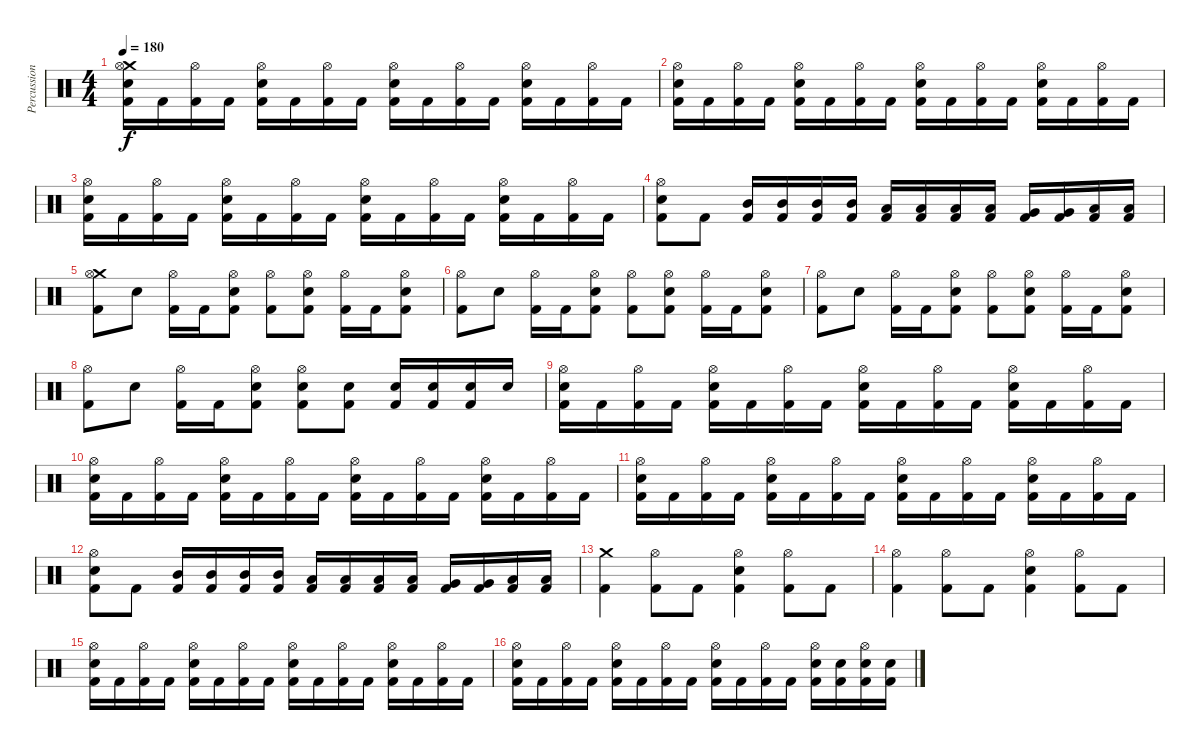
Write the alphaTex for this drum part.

\track ("Percussion" "Percussion") {instrument percussion}
\staff {score}
\articulation defaults
\ts (4 4)
\tempo 180
\clef neutral
\ks c
("Crash medium (hit)" "Hi-Hat (open)" "Electric Snare (hit)" "Kick (hit) 2").16{dy f} "Kick (hit) 2".16 ("Hi-Hat (open)" "Kick (hit) 2").16 "Kick (hit) 2".16 ("Hi-Hat (open)" "Electric Snare (hit)" "Kick (hit) 2").16 "Kick (hit) 2".16 ("Hi-Hat (open)" "Kick (hit) 2").16 "Kick (hit) 2".16 ("Hi-Hat (open)" "Electric Snare (hit)" "Kick (hit) 2").16 "Kick (hit) 2".16 ("Hi-Hat (open)" "Kick (hit) 2").16 "Kick (hit) 2".16 ("Hi-Hat (open)" "Electric Snare (hit)" "Kick (hit) 2").16 "Kick (hit) 2".16 ("Hi-Hat (open)" "Kick (hit) 2").16 "Kick (hit) 2".16 |
("Hi-Hat (open)" "Electric Snare (hit)" "Kick (hit) 2").16 "Kick (hit) 2".16 ("Hi-Hat (open)" "Kick (hit) 2").16 "Kick (hit) 2".16 ("Hi-Hat (open)" "Electric Snare (hit)" "Kick (hit) 2").16 "Kick (hit) 2".16 ("Hi-Hat (open)" "Kick (hit) 2").16 "Kick (hit) 2".16 ("Hi-Hat (open)" "Electric Snare (hit)" "Kick (hit) 2").16 "Kick (hit) 2".16 ("Hi-Hat (open)" "Kick (hit) 2").16 "Kick (hit) 2".16 ("Hi-Hat (open)" "Electric Snare (hit)" "Kick (hit) 2").16 "Kick (hit) 2".16 ("Hi-Hat (open)" "Kick (hit) 2").16 "Kick (hit) 2".16 |
("Hi-Hat (open)" "Electric Snare (hit)" "Kick (hit) 2").16 "Kick (hit) 2".16 ("Hi-Hat (open)" "Kick (hit) 2").16 "Kick (hit) 2".16 ("Hi-Hat (open)" "Electric Snare (hit)" "Kick (hit) 2").16 "Kick (hit) 2".16 ("Hi-Hat (open)" "Kick (hit) 2").16 "Kick (hit) 2".16 ("Hi-Hat (open)" "Electric Snare (hit)" "Kick (hit) 2").16 "Kick (hit) 2".16 ("Hi-Hat (open)" "Kick (hit) 2").16 "Kick (hit) 2".16 ("Hi-Hat (open)" "Electric Snare (hit)" "Kick (hit) 2").16 "Kick (hit) 2".16 ("Hi-Hat (open)" "Kick (hit) 2").16 "Kick (hit) 2".16 |
("Hi-Hat (open)" "Electric Snare (hit)" "Kick (hit) 2").8 "Kick (hit) 2".8 ("Mid Tom (hit)" "Kick (hit) 2").16 ("Mid Tom (hit)" "Kick (hit) 2").16 ("Mid Tom (hit)" "Kick (hit) 2").16 ("Mid Tom (hit)" "Kick (hit) 2").16 ("Low Tom (hit)" "Kick (hit) 2").16 ("Low Tom (hit)" "Kick (hit) 2").16 ("Low Tom (hit)" "Kick (hit) 2").16 ("Low Tom (hit)" "Kick (hit) 2").16 ("Very Low Tom (hit)" "Kick (hit) 2").16 ("Very Low Tom (hit)" "Kick (hit) 2").16 ("Low Floor Tom (hit)" "Kick (hit) 2").16 ("Low Floor Tom (hit)" "Kick (hit) 2").16 |
("Crash medium (hit)" "Hi-Hat (open)" "Kick (hit) 2").8 "Electric Snare (hit)".8 ("Hi-Hat (open)" "Kick (hit) 2").16 "Kick (hit) 2".16 ("Hi-Hat (open)" "Electric Snare (hit)" "Kick (hit) 2").8 ("Hi-Hat (open)" "Kick (hit) 2").8 ("Hi-Hat (open)" "Electric Snare (hit)" "Kick (hit) 2").8 ("Hi-Hat (open)" "Kick (hit) 2").16 "Kick (hit) 2".16 ("Hi-Hat (open)" "Electric Snare (hit)" "Kick (hit) 2").8 |
("Hi-Hat (open)" "Kick (hit) 2").8 "Electric Snare (hit)".8 ("Hi-Hat (open)" "Kick (hit) 2").16 "Kick (hit) 2".16 ("Hi-Hat (open)" "Electric Snare (hit)" "Kick (hit) 2").8 ("Hi-Hat (open)" "Kick (hit) 2").8 ("Hi-Hat (open)" "Electric Snare (hit)" "Kick (hit) 2").8 ("Hi-Hat (open)" "Kick (hit) 2").16 "Kick (hit) 2".16 ("Hi-Hat (open)" "Electric Snare (hit)" "Kick (hit) 2").8 |
("Hi-Hat (open)" "Kick (hit) 2").8 "Electric Snare (hit)".8 ("Hi-Hat (open)" "Kick (hit) 2").16 "Kick (hit) 2".16 ("Hi-Hat (open)" "Electric Snare (hit)" "Kick (hit) 2").8 ("Hi-Hat (open)" "Kick (hit) 2").8 ("Hi-Hat (open)" "Electric Snare (hit)" "Kick (hit) 2").8 ("Hi-Hat (open)" "Kick (hit) 2").16 "Kick (hit) 2".16 ("Hi-Hat (open)" "Electric Snare (hit)" "Kick (hit) 2").8 |
("Hi-Hat (open)" "Kick (hit) 2").8 "Electric Snare (hit)".8 ("Hi-Hat (open)" "Kick (hit) 2").16 "Kick (hit) 2".16 ("Hi-Hat (open)" "Electric Snare (hit)" "Kick (hit) 2").8 ("Hi-Hat (open)" "Electric Snare (hit)" "Kick (hit) 2").8 ("Electric Snare (hit)" "Kick (hit) 2").8 ("Electric Snare (hit)" "Kick (hit) 2").16 ("Electric Snare (hit)" "Kick (hit) 2").16 ("Electric Snare (hit)" "Kick (hit) 2").16 "Electric Snare (hit)".16 |
("Hi-Hat (open)" "Electric Snare (hit)" "Kick (hit) 2").16 "Kick (hit) 2".16 ("Hi-Hat (open)" "Kick (hit) 2").16 "Kick (hit) 2".16 ("Hi-Hat (open)" "Electric Snare (hit)" "Kick (hit) 2").16 "Kick (hit) 2".16 ("Hi-Hat (open)" "Kick (hit) 2").16 "Kick (hit) 2".16 ("Hi-Hat (open)" "Electric Snare (hit)" "Kick (hit) 2").16 "Kick (hit) 2".16 ("Hi-Hat (open)" "Kick (hit) 2").16 "Kick (hit) 2".16 ("Hi-Hat (open)" "Electric Snare (hit)" "Kick (hit) 2").16 "Kick (hit) 2".16 ("Hi-Hat (open)" "Kick (hit) 2").16 "Kick (hit) 2".16 |
("Hi-Hat (open)" "Electric Snare (hit)" "Kick (hit) 2").16 "Kick (hit) 2".16 ("Hi-Hat (open)" "Kick (hit) 2").16 "Kick (hit) 2".16 ("Hi-Hat (open)" "Electric Snare (hit)" "Kick (hit) 2").16 "Kick (hit) 2".16 ("Hi-Hat (open)" "Kick (hit) 2").16 "Kick (hit) 2".16 ("Hi-Hat (open)" "Electric Snare (hit)" "Kick (hit) 2").16 "Kick (hit) 2".16 ("Hi-Hat (open)" "Kick (hit) 2").16 "Kick (hit) 2".16 ("Hi-Hat (open)" "Electric Snare (hit)" "Kick (hit) 2").16 "Kick (hit) 2".16 ("Hi-Hat (open)" "Kick (hit) 2").16 "Kick (hit) 2".16 |
("Hi-Hat (open)" "Electric Snare (hit)" "Kick (hit) 2").16 "Kick (hit) 2".16 ("Hi-Hat (open)" "Kick (hit) 2").16 "Kick (hit) 2".16 ("Hi-Hat (open)" "Electric Snare (hit)" "Kick (hit) 2").16 "Kick (hit) 2".16 ("Hi-Hat (open)" "Kick (hit) 2").16 "Kick (hit) 2".16 ("Hi-Hat (open)" "Electric Snare (hit)" "Kick (hit) 2").16 "Kick (hit) 2".16 ("Hi-Hat (open)" "Kick (hit) 2").16 "Kick (hit) 2".16 ("Hi-Hat (open)" "Electric Snare (hit)" "Kick (hit) 2").16 "Kick (hit) 2".16 ("Hi-Hat (open)" "Kick (hit) 2").16 "Kick (hit) 2".16 |
("Hi-Hat (open)" "Electric Snare (hit)" "Kick (hit) 2").8 "Kick (hit) 2".8 ("Mid Tom (hit)" "Kick (hit) 2").16 ("Mid Tom (hit)" "Kick (hit) 2").16 ("Mid Tom (hit)" "Kick (hit) 2").16 ("Mid Tom (hit)" "Kick (hit) 2").16 ("Low Tom (hit)" "Kick (hit) 2").16 ("Low Tom (hit)" "Kick (hit) 2").16 ("Low Tom (hit)" "Kick (hit) 2").16 ("Low Tom (hit)" "Kick (hit) 2").16 ("Very Low Tom (hit)" "Kick (hit) 2").16 ("Very Low Tom (hit)" "Kick (hit) 2").16 ("Low Floor Tom (hit)" "Kick (hit) 2").16 ("Low Floor Tom (hit)" "Kick (hit) 2").16 |
("Crash medium (hit)" "Kick (hit) 2").4 ("Hi-Hat (open)" "Kick (hit) 2").8 "Kick (hit) 2".8 ("Hi-Hat (open)" "Electric Snare (hit)" "Kick (hit) 2").4 ("Hi-Hat (open)" "Kick (hit) 2").8 "Kick (hit) 2".8 |
("Hi-Hat (open)" "Kick (hit) 2").4 ("Hi-Hat (open)" "Kick (hit) 2").8 "Kick (hit) 2".8 ("Hi-Hat (open)" "Electric Snare (hit)" "Kick (hit) 2").4 ("Hi-Hat (open)" "Kick (hit) 2").8 "Kick (hit) 2".8 |
("Hi-Hat (open)" "Electric Snare (hit)" "Kick (hit) 2").16 "Kick (hit) 2".16 ("Hi-Hat (open)" "Kick (hit) 2").16 "Kick (hit) 2".16 ("Hi-Hat (open)" "Electric Snare (hit)" "Kick (hit) 2").16 "Kick (hit) 2".16 ("Hi-Hat (open)" "Kick (hit) 2").16 "Kick (hit) 2".16 ("Hi-Hat (open)" "Electric Snare (hit)" "Kick (hit) 2").16 "Kick (hit) 2".16 ("Hi-Hat (open)" "Kick (hit) 2").16 "Kick (hit) 2".16 ("Hi-Hat (open)" "Electric Snare (hit)" "Kick (hit) 2").16 "Kick (hit) 2".16 ("Hi-Hat (open)" "Kick (hit) 2").16 "Kick (hit) 2".16 |
("Hi-Hat (open)" "Electric Snare (hit)" "Kick (hit) 2").16 "Kick (hit) 2".16 ("Hi-Hat (open)" "Kick (hit) 2").16 "Kick (hit) 2".16 ("Hi-Hat (open)" "Electric Snare (hit)" "Kick (hit) 2").16 "Kick (hit) 2".16 ("Hi-Hat (open)" "Kick (hit) 2").16 "Kick (hit) 2".16 ("Hi-Hat (open)" "Electric Snare (hit)" "Kick (hit) 2").16 "Kick (hit) 2".16 ("Hi-Hat (open)" "Kick (hit) 2").16 "Kick (hit) 2".16 ("Hi-Hat (open)" "Electric Snare (hit)" "Kick (hit) 2").16 ("Electric Snare (hit)" "Kick (hit) 2").16 ("Hi-Hat (open)" "Electric Snare (hit)" "Kick (hit) 2").16 ("Electric Snare (hit)" "Kick (hit) 2").16
